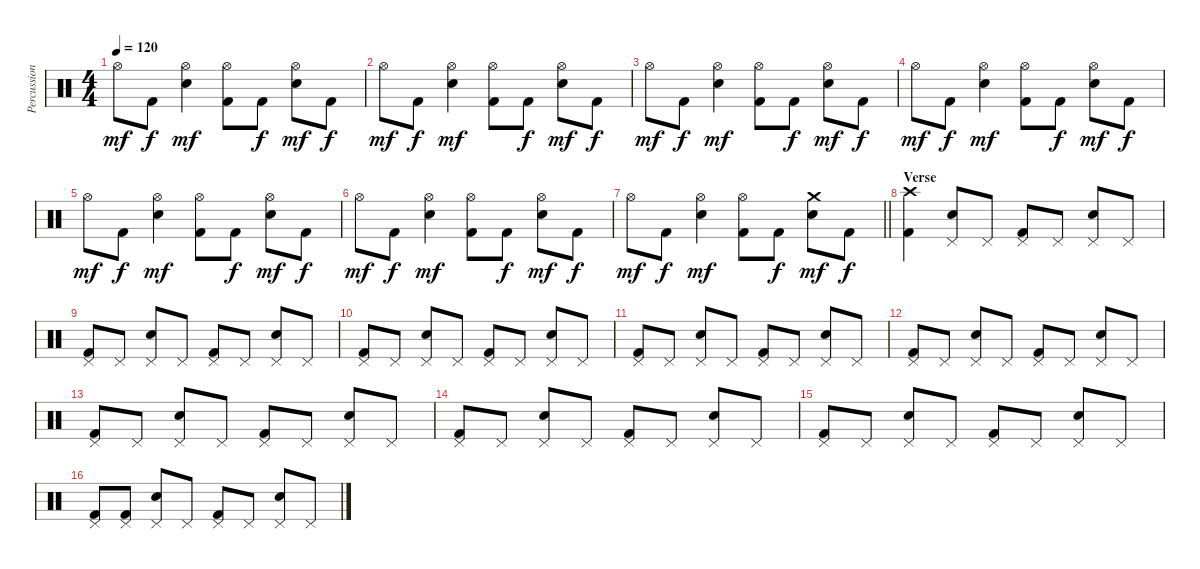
\track ("Percussion" "Percussion") {instrument percussion}
\staff {score}
\articulation defaults
\ts (4 4)
\tempo 120
\clef neutral
\ks c "Hi-Hat (open)".8{dy mf} "Kick (hit) 2".8{dy f}
("Hi-Hat (open)" "Electric Snare (hit)").4{dy mf} ("Hi-Hat (open)" "Kick (hit) 2").8 "Kick (hit) 2".8{dy f} ("Hi-Hat (open)" "Electric Snare (hit)").8{dy mf} "Kick (hit) 2".8{dy f} |
"Hi-Hat (open)".8{dy mf} "Kick (hit) 2".8{dy f} ("Hi-Hat (open)" "Electric Snare (hit)").4{dy mf} ("Hi-Hat (open)" "Kick (hit) 2").8 "Kick (hit) 2".8{dy f} ("Hi-Hat (open)" "Electric Snare (hit)").8{dy mf} "Kick (hit) 2".8{dy f} |
"Hi-Hat (open)".8{dy mf} "Kick (hit) 2".8{dy f} ("Hi-Hat (open)" "Electric Snare (hit)").4{dy mf} ("Hi-Hat (open)" "Kick (hit) 2").8 "Kick (hit) 2".8{dy f} ("Hi-Hat (open)" "Electric Snare (hit)").8{dy mf} "Kick (hit) 2".8{dy f} |
"Hi-Hat (open)".8{dy mf} "Kick (hit) 2".8{dy f} ("Hi-Hat (open)" "Electric Snare (hit)").4{dy mf} ("Hi-Hat (open)" "Kick (hit) 2").8 "Kick (hit) 2".8{dy f} ("Hi-Hat (open)" "Electric Snare (hit)").8{dy mf} "Kick (hit) 2".8{dy f} |
"Hi-Hat (open)".8{dy mf} "Kick (hit) 2".8{dy f} ("Hi-Hat (open)" "Electric Snare (hit)").4{dy mf} ("Hi-Hat (open)" "Kick (hit) 2").8 "Kick (hit) 2".8{dy f} ("Hi-Hat (open)" "Electric Snare (hit)").8{dy mf} "Kick (hit) 2".8{dy f} |
"Hi-Hat (open)".8{dy mf} "Kick (hit) 2".8{dy f} ("Hi-Hat (open)" "Electric Snare (hit)").4{dy mf} ("Hi-Hat (open)" "Kick (hit) 2").8 "Kick (hit) 2".8{dy f} ("Hi-Hat (open)" "Electric Snare (hit)").8{dy mf} "Kick (hit) 2".8{dy f} |
\barLineRight lightlight "Hi-Hat (open)".8{dy mf} "Kick (hit) 2".8{dy f}
("Hi-Hat (open)" "Electric Snare (hit)").4{dy mf} ("Hi-Hat (open)" "Kick (hit) 2").8 "Kick (hit) 2".8{dy f} ("Crash medium (hit)" "Electric Snare (hit)").8{dy mf} "Kick (hit) 2".8{dy f} |
\section ("" "Verse")
("Crash high (hit)" "Kick (hit) 2").4 ("Pedal Hi-Hat (hit)" "Electric Snare (hit)").8 "Pedal Hi-Hat (hit)".8 ("Pedal Hi-Hat (hit)" "Kick (hit) 2").8 "Pedal Hi-Hat (hit)".8 ("Pedal Hi-Hat (hit)" "Electric Snare (hit)").8 "Pedal Hi-Hat (hit)".8 |
("Pedal Hi-Hat (hit)" "Kick (hit) 2").8 "Pedal Hi-Hat (hit)".8 ("Pedal Hi-Hat (hit)" "Electric Snare (hit)").8 "Pedal Hi-Hat (hit)".8 ("Pedal Hi-Hat (hit)" "Kick (hit) 2").8 "Pedal Hi-Hat (hit)".8 ("Pedal Hi-Hat (hit)" "Electric Snare (hit)").8 "Pedal Hi-Hat (hit)".8 |
("Pedal Hi-Hat (hit)" "Kick (hit) 2").8 "Pedal Hi-Hat (hit)".8 ("Pedal Hi-Hat (hit)" "Electric Snare (hit)").8 "Pedal Hi-Hat (hit)".8 ("Pedal Hi-Hat (hit)" "Kick (hit) 2").8 "Pedal Hi-Hat (hit)".8 ("Pedal Hi-Hat (hit)" "Electric Snare (hit)").8 "Pedal Hi-Hat (hit)".8 |
("Pedal Hi-Hat (hit)" "Kick (hit) 2").8 "Pedal Hi-Hat (hit)".8 ("Pedal Hi-Hat (hit)" "Electric Snare (hit)").8 "Pedal Hi-Hat (hit)".8 ("Pedal Hi-Hat (hit)" "Kick (hit) 2").8 "Pedal Hi-Hat (hit)".8 ("Pedal Hi-Hat (hit)" "Electric Snare (hit)").8 "Pedal Hi-Hat (hit)".8 |
("Pedal Hi-Hat (hit)" "Kick (hit) 2").8 "Pedal Hi-Hat (hit)".8 ("Pedal Hi-Hat (hit)" "Electric Snare (hit)").8 "Pedal Hi-Hat (hit)".8 ("Pedal Hi-Hat (hit)" "Kick (hit) 2").8 "Pedal Hi-Hat (hit)".8 ("Pedal Hi-Hat (hit)" "Electric Snare (hit)").8 "Pedal Hi-Hat (hit)".8 |
("Pedal Hi-Hat (hit)" "Kick (hit) 2").8 "Pedal Hi-Hat (hit)".8 ("Pedal Hi-Hat (hit)" "Electric Snare (hit)").8 "Pedal Hi-Hat (hit)".8 ("Pedal Hi-Hat (hit)" "Kick (hit) 2").8 "Pedal Hi-Hat (hit)".8 ("Pedal Hi-Hat (hit)" "Electric Snare (hit)").8 "Pedal Hi-Hat (hit)".8 |
("Pedal Hi-Hat (hit)" "Kick (hit) 2").8 "Pedal Hi-Hat (hit)".8 ("Pedal Hi-Hat (hit)" "Electric Snare (hit)").8 "Pedal Hi-Hat (hit)".8 ("Pedal Hi-Hat (hit)" "Kick (hit) 2").8 "Pedal Hi-Hat (hit)".8 ("Pedal Hi-Hat (hit)" "Electric Snare (hit)").8 "Pedal Hi-Hat (hit)".8 |
("Pedal Hi-Hat (hit)" "Kick (hit) 2").8 "Pedal Hi-Hat (hit)".8 ("Pedal Hi-Hat (hit)" "Electric Snare (hit)").8 "Pedal Hi-Hat (hit)".8 ("Pedal Hi-Hat (hit)" "Kick (hit) 2").8 "Pedal Hi-Hat (hit)".8 ("Pedal Hi-Hat (hit)" "Electric Snare (hit)").8 "Pedal Hi-Hat (hit)".8 |
("Pedal Hi-Hat (hit)" "Kick (hit) 2").8 ("Pedal Hi-Hat (hit)" "Kick (hit) 2").8 ("Pedal Hi-Hat (hit)" "Electric Snare (hit)").8 "Pedal Hi-Hat (hit)".8 ("Pedal Hi-Hat (hit)" "Kick (hit) 2").8 "Pedal Hi-Hat (hit)".8 ("Pedal Hi-Hat (hit)" "Electric Snare (hit)").8 "Pedal Hi-Hat (hit)".8
